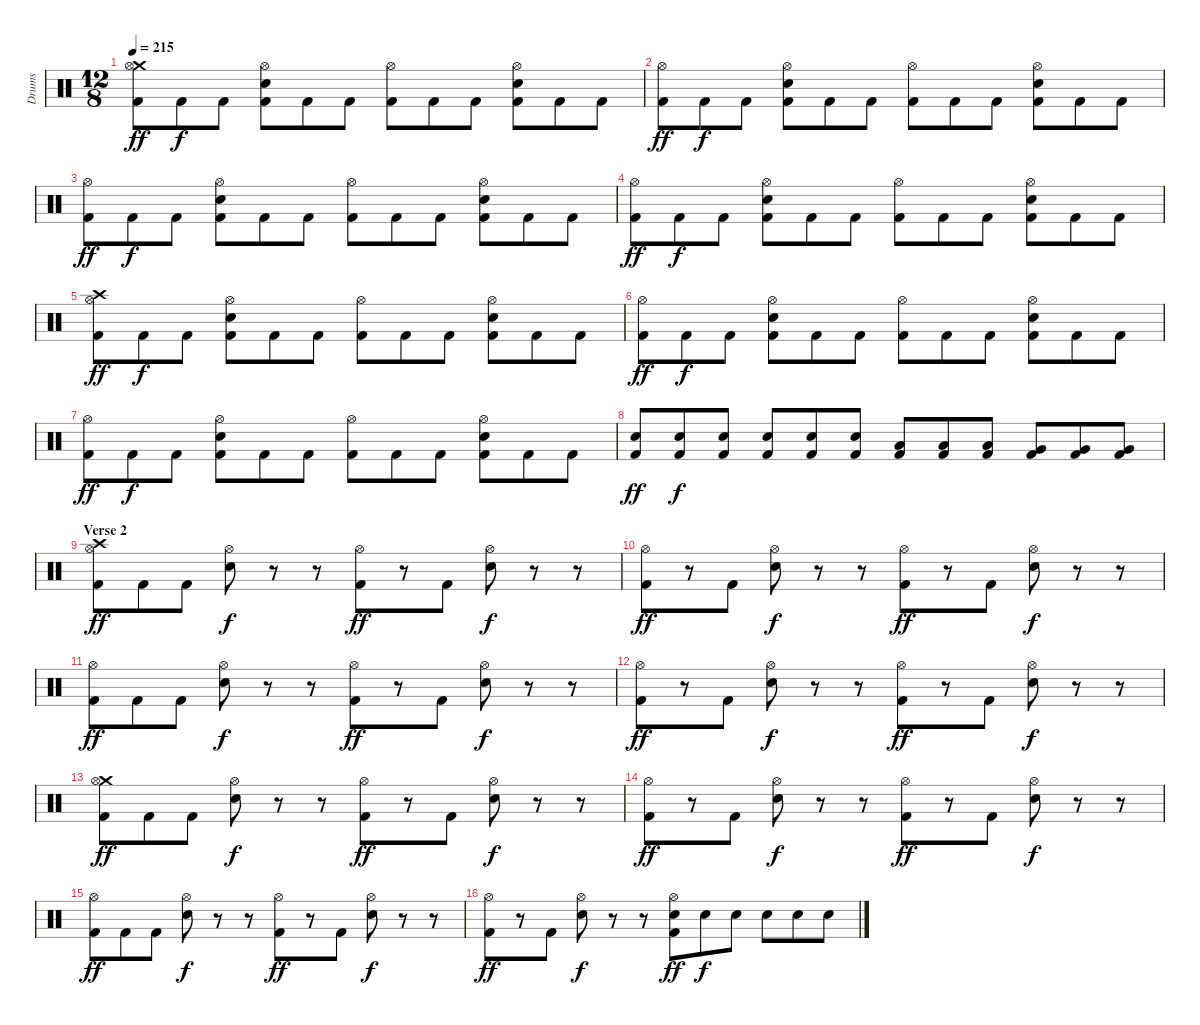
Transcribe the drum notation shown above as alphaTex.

\track ("Drums" "Drums") {instrument percussion}
\staff {score}
\articulation defaults
\ts (12 8)
\tempo 215
\clef neutral
\ks c
("Crash medium (hit)" "Hi-Hat (open)" "Kick (hit) 2").8{dy ff} "Kick (hit) 2".8{dy f} "Kick (hit) 2".8 ("Hi-Hat (open)" "Snare (hit) 2" "Kick (hit) 2").8 "Kick (hit) 2".8 "Kick (hit) 2".8 ("Hi-Hat (open)" "Kick (hit) 2").8 "Kick (hit) 2".8 "Kick (hit) 2".8 ("Hi-Hat (open)" "Snare (hit) 2" "Kick (hit) 2").8 "Kick (hit) 2".8 "Kick (hit) 2".8 |
("Hi-Hat (open)" "Kick (hit) 2").8{dy ff} "Kick (hit) 2".8{dy f} "Kick (hit) 2".8 ("Hi-Hat (open)" "Snare (hit) 2" "Kick (hit) 2").8 "Kick (hit) 2".8 "Kick (hit) 2".8 ("Hi-Hat (open)" "Kick (hit) 2").8 "Kick (hit) 2".8 "Kick (hit) 2".8 ("Hi-Hat (open)" "Snare (hit) 2" "Kick (hit) 2").8 "Kick (hit) 2".8 "Kick (hit) 2".8 |
("Hi-Hat (open)" "Kick (hit) 2").8{dy ff} "Kick (hit) 2".8{dy f} "Kick (hit) 2".8 ("Hi-Hat (open)" "Snare (hit) 2" "Kick (hit) 2").8 "Kick (hit) 2".8 "Kick (hit) 2".8 ("Hi-Hat (open)" "Kick (hit) 2").8 "Kick (hit) 2".8 "Kick (hit) 2".8 ("Hi-Hat (open)" "Snare (hit) 2" "Kick (hit) 2").8 "Kick (hit) 2".8 "Kick (hit) 2".8 |
("Hi-Hat (open)" "Kick (hit) 2").8{dy ff} "Kick (hit) 2".8{dy f} "Kick (hit) 2".8 ("Hi-Hat (open)" "Snare (hit) 2" "Kick (hit) 2").8 "Kick (hit) 2".8 "Kick (hit) 2".8 ("Hi-Hat (open)" "Kick (hit) 2").8 "Kick (hit) 2".8 "Kick (hit) 2".8 ("Hi-Hat (open)" "Snare (hit) 2" "Kick (hit) 2").8 "Kick (hit) 2".8 "Kick (hit) 2".8 |
("Crash high (hit)" "Hi-Hat (open)" "Kick (hit) 2").8{dy ff} "Kick (hit) 2".8{dy f} "Kick (hit) 2".8 ("Hi-Hat (open)" "Snare (hit) 2" "Kick (hit) 2").8 "Kick (hit) 2".8 "Kick (hit) 2".8 ("Hi-Hat (open)" "Kick (hit) 2").8 "Kick (hit) 2".8 "Kick (hit) 2".8 ("Hi-Hat (open)" "Snare (hit) 2" "Kick (hit) 2").8 "Kick (hit) 2".8 "Kick (hit) 2".8 |
("Hi-Hat (open)" "Kick (hit) 2").8{dy ff} "Kick (hit) 2".8{dy f} "Kick (hit) 2".8 ("Hi-Hat (open)" "Snare (hit) 2" "Kick (hit) 2").8 "Kick (hit) 2".8 "Kick (hit) 2".8 ("Hi-Hat (open)" "Kick (hit) 2").8 "Kick (hit) 2".8 "Kick (hit) 2".8 ("Hi-Hat (open)" "Snare (hit) 2" "Kick (hit) 2").8 "Kick (hit) 2".8 "Kick (hit) 2".8 |
("Hi-Hat (open)" "Kick (hit) 2").8{dy ff} "Kick (hit) 2".8{dy f} "Kick (hit) 2".8 ("Hi-Hat (open)" "Snare (hit) 2" "Kick (hit) 2").8 "Kick (hit) 2".8 "Kick (hit) 2".8 ("Hi-Hat (open)" "Kick (hit) 2").8 "Kick (hit) 2".8 "Kick (hit) 2".8 ("Hi-Hat (open)" "Snare (hit) 2" "Kick (hit) 2").8 "Kick (hit) 2".8 "Kick (hit) 2".8 |
("Snare (hit) 2" "Kick (hit) 2").8{dy ff} ("Snare (hit) 2" "Kick (hit) 2").8{dy f} ("Snare (hit) 2" "Kick (hit) 2").8 ("Snare (hit) 2" "Kick (hit) 2").8 ("Snare (hit) 2" "Kick (hit) 2").8 ("Snare (hit) 2" "Kick (hit) 2").8 ("Low Tom (hit)" "Kick (hit) 2").8 ("Low Tom (hit)" "Kick (hit) 2").8 ("Low Tom (hit)" "Kick (hit) 2").8 ("Very Low Tom (hit)" "Kick (hit) 2").8 ("Very Low Tom (hit)" "Kick (hit) 2").8 ("Very Low Tom (hit)" "Kick (hit) 2").8 |
\section ("" "Verse 2")
("Crash high (hit)" "Hi-Hat (open)" "Kick (hit) 2").8{dy ff} "Kick (hit) 2".8 "Kick (hit) 2".8 ("Hi-Hat (open)" "Snare (hit) 2").8{dy f} r.8 r.8 ("Hi-Hat (open)" "Kick (hit) 2").8{dy ff} r.8 "Kick (hit) 2".8 ("Hi-Hat (open)" "Snare (hit) 2").8{dy f} r.8 r.8 |
("Hi-Hat (open)" "Kick (hit) 2").8{dy ff} r.8 "Kick (hit) 2".8 ("Hi-Hat (open)" "Snare (hit) 2").8{dy f} r.8 r.8 ("Hi-Hat (open)" "Kick (hit) 2").8{dy ff} r.8 "Kick (hit) 2".8 ("Hi-Hat (open)" "Snare (hit) 2").8{dy f} r.8 r.8 |
("Hi-Hat (open)" "Kick (hit) 2").8{dy ff} "Kick (hit) 2".8 "Kick (hit) 2".8 ("Hi-Hat (open)" "Snare (hit) 2").8{dy f} r.8 r.8 ("Hi-Hat (open)" "Kick (hit) 2").8{dy ff} r.8 "Kick (hit) 2".8 ("Hi-Hat (open)" "Snare (hit) 2").8{dy f} r.8 r.8 |
("Hi-Hat (open)" "Kick (hit) 2").8{dy ff} r.8 "Kick (hit) 2".8 ("Hi-Hat (open)" "Snare (hit) 2").8{dy f} r.8 r.8 ("Hi-Hat (open)" "Kick (hit) 2").8{dy ff} r.8 "Kick (hit) 2".8 ("Hi-Hat (open)" "Snare (hit) 2").8{dy f} r.8 r.8 |
("Crash medium (hit)" "Hi-Hat (open)" "Kick (hit) 2").8{dy ff} "Kick (hit) 2".8 "Kick (hit) 2".8 ("Hi-Hat (open)" "Snare (hit) 2").8{dy f} r.8 r.8 ("Hi-Hat (open)" "Kick (hit) 2").8{dy ff} r.8 "Kick (hit) 2".8 ("Hi-Hat (open)" "Snare (hit) 2").8{dy f} r.8 r.8 |
("Hi-Hat (open)" "Kick (hit) 2").8{dy ff} r.8 "Kick (hit) 2".8 ("Hi-Hat (open)" "Snare (hit) 2").8{dy f} r.8 r.8 ("Hi-Hat (open)" "Kick (hit) 2").8{dy ff} r.8 "Kick (hit) 2".8 ("Hi-Hat (open)" "Snare (hit) 2").8{dy f} r.8 r.8 |
("Hi-Hat (open)" "Kick (hit) 2").8{dy ff} "Kick (hit) 2".8 "Kick (hit) 2".8 ("Hi-Hat (open)" "Snare (hit) 2").8{dy f} r.8 r.8 ("Hi-Hat (open)" "Kick (hit) 2").8{dy ff} r.8 "Kick (hit) 2".8 ("Hi-Hat (open)" "Snare (hit) 2").8{dy f} r.8 r.8 |
("Hi-Hat (open)" "Kick (hit) 2").8{dy ff} r.8 "Kick (hit) 2".8 ("Hi-Hat (open)" "Snare (hit) 2").8{dy f} r.8 r.8 ("Hi-Hat (open)" "Snare (hit) 2" "Kick (hit) 2").8{dy ff} "Snare (hit) 2".8{dy f} "Snare (hit) 2".8 "Snare (hit) 2".8 "Snare (hit) 2".8 "Snare (hit) 2".8
